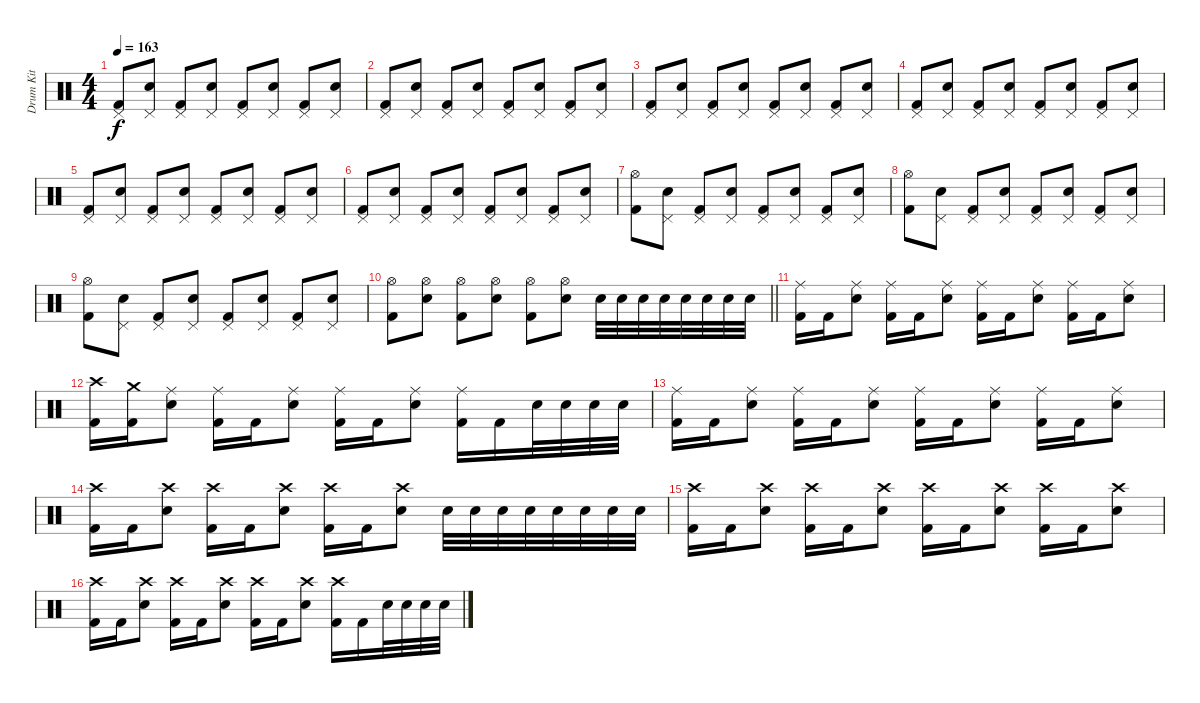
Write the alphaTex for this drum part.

\track ("Drum Kit" "Drum Kit") {instrument percussion}
\staff {score}
\articulation defaults
\ts (4 4)
\tempo 163
\clef neutral
\ks c
("Pedal Hi-Hat (hit)" "Kick (hit) 2").8{dy f} ("Pedal Hi-Hat (hit)" "Electric Snare (hit)").8 ("Pedal Hi-Hat (hit)" "Kick (hit) 2").8 ("Pedal Hi-Hat (hit)" "Electric Snare (hit)").8 ("Pedal Hi-Hat (hit)" "Kick (hit) 2").8 ("Pedal Hi-Hat (hit)" "Electric Snare (hit)").8 ("Pedal Hi-Hat (hit)" "Kick (hit) 2").8 ("Pedal Hi-Hat (hit)" "Electric Snare (hit)").8 |
("Pedal Hi-Hat (hit)" "Kick (hit) 2").8 ("Pedal Hi-Hat (hit)" "Electric Snare (hit)").8 ("Pedal Hi-Hat (hit)" "Kick (hit) 2").8 ("Pedal Hi-Hat (hit)" "Electric Snare (hit)").8 ("Pedal Hi-Hat (hit)" "Kick (hit) 2").8 ("Pedal Hi-Hat (hit)" "Electric Snare (hit)").8 ("Pedal Hi-Hat (hit)" "Kick (hit) 2").8 ("Pedal Hi-Hat (hit)" "Electric Snare (hit)").8 |
("Pedal Hi-Hat (hit)" "Kick (hit) 2").8 ("Pedal Hi-Hat (hit)" "Electric Snare (hit)").8 ("Pedal Hi-Hat (hit)" "Kick (hit) 2").8 ("Pedal Hi-Hat (hit)" "Electric Snare (hit)").8 ("Pedal Hi-Hat (hit)" "Kick (hit) 2").8 ("Pedal Hi-Hat (hit)" "Electric Snare (hit)").8 ("Pedal Hi-Hat (hit)" "Kick (hit) 2").8 ("Pedal Hi-Hat (hit)" "Electric Snare (hit)").8 |
("Pedal Hi-Hat (hit)" "Kick (hit) 2").8 ("Pedal Hi-Hat (hit)" "Electric Snare (hit)").8 ("Pedal Hi-Hat (hit)" "Kick (hit) 2").8 ("Pedal Hi-Hat (hit)" "Electric Snare (hit)").8 ("Pedal Hi-Hat (hit)" "Kick (hit) 2").8 ("Pedal Hi-Hat (hit)" "Electric Snare (hit)").8 ("Pedal Hi-Hat (hit)" "Kick (hit) 2").8 ("Pedal Hi-Hat (hit)" "Electric Snare (hit)").8 |
("Pedal Hi-Hat (hit)" "Kick (hit) 2").8 ("Pedal Hi-Hat (hit)" "Electric Snare (hit)").8 ("Pedal Hi-Hat (hit)" "Kick (hit) 2").8 ("Pedal Hi-Hat (hit)" "Electric Snare (hit)").8 ("Pedal Hi-Hat (hit)" "Kick (hit) 2").8 ("Pedal Hi-Hat (hit)" "Electric Snare (hit)").8 ("Pedal Hi-Hat (hit)" "Kick (hit) 2").8 ("Pedal Hi-Hat (hit)" "Electric Snare (hit)").8 |
("Pedal Hi-Hat (hit)" "Kick (hit) 2").8 ("Pedal Hi-Hat (hit)" "Electric Snare (hit)").8 ("Pedal Hi-Hat (hit)" "Kick (hit) 2").8 ("Pedal Hi-Hat (hit)" "Electric Snare (hit)").8 ("Pedal Hi-Hat (hit)" "Kick (hit) 2").8 ("Pedal Hi-Hat (hit)" "Electric Snare (hit)").8 ("Pedal Hi-Hat (hit)" "Kick (hit) 2").8 ("Pedal Hi-Hat (hit)" "Electric Snare (hit)").8 |
("Hi-Hat (open)" "Kick (hit) 2").8 ("Pedal Hi-Hat (hit)" "Electric Snare (hit)").8 ("Pedal Hi-Hat (hit)" "Kick (hit) 2").8 ("Pedal Hi-Hat (hit)" "Electric Snare (hit)").8 ("Pedal Hi-Hat (hit)" "Kick (hit) 2").8 ("Pedal Hi-Hat (hit)" "Electric Snare (hit)").8 ("Pedal Hi-Hat (hit)" "Kick (hit) 2").8 ("Pedal Hi-Hat (hit)" "Electric Snare (hit)").8 |
("Hi-Hat (open)" "Kick (hit) 2").8 ("Pedal Hi-Hat (hit)" "Electric Snare (hit)").8 ("Pedal Hi-Hat (hit)" "Kick (hit) 2").8 ("Pedal Hi-Hat (hit)" "Electric Snare (hit)").8 ("Pedal Hi-Hat (hit)" "Kick (hit) 2").8 ("Pedal Hi-Hat (hit)" "Electric Snare (hit)").8 ("Pedal Hi-Hat (hit)" "Kick (hit) 2").8 ("Pedal Hi-Hat (hit)" "Electric Snare (hit)").8 |
("Hi-Hat (open)" "Kick (hit) 2").8 ("Pedal Hi-Hat (hit)" "Electric Snare (hit)").8 ("Pedal Hi-Hat (hit)" "Kick (hit) 2").8 ("Pedal Hi-Hat (hit)" "Electric Snare (hit)").8 ("Pedal Hi-Hat (hit)" "Kick (hit) 2").8 ("Pedal Hi-Hat (hit)" "Electric Snare (hit)").8 ("Pedal Hi-Hat (hit)" "Kick (hit) 2").8 ("Pedal Hi-Hat (hit)" "Electric Snare (hit)").8 |
\barLineRight lightlight
("Hi-Hat (open)" "Kick (hit) 2").8 ("Hi-Hat (open)" "Electric Snare (hit)").8 ("Hi-Hat (open)" "Kick (hit) 2").8 ("Hi-Hat (open)" "Electric Snare (hit)").8 ("Hi-Hat (open)" "Kick (hit) 2").8 ("Hi-Hat (open)" "Electric Snare (hit)").8 "Electric Snare (hit)".32 "Electric Snare (hit)".32 "Electric Snare (hit)".32 "Electric Snare (hit)".32 "Electric Snare (hit)".32 "Electric Snare (hit)".32 "Electric Snare (hit)".32 "Electric Snare (hit)".32 |
("Ride (middle)" "Kick (hit) 2").16 "Kick (hit) 2".16 ("Ride (middle)" "Electric Snare (hit)").8 ("Ride (middle)" "Kick (hit) 2").16 "Kick (hit) 2".16 ("Ride (middle)" "Electric Snare (hit)").8 ("Ride (middle)" "Kick (hit) 2").16 "Kick (hit) 2".16 ("Ride (middle)" "Electric Snare (hit)").8 ("Ride (middle)" "Kick (hit) 2").16 "Kick (hit) 2".16 ("Ride (middle)" "Electric Snare (hit)").8 |
("Crash high (hit)" "Kick (hit) 2").16 ("Crash medium (hit)" "Kick (hit) 2").16 ("Ride (middle)" "Electric Snare (hit)").8 ("Ride (middle)" "Kick (hit) 2").16 "Kick (hit) 2".16 ("Ride (middle)" "Electric Snare (hit)").8 ("Ride (middle)" "Kick (hit) 2").16 "Kick (hit) 2".16 ("Ride (middle)" "Electric Snare (hit)").8 ("Ride (middle)" "Kick (hit) 2").16 "Kick (hit) 2".16 "Electric Snare (hit)".32 "Electric Snare (hit)".32 "Electric Snare (hit)".32 "Electric Snare (hit)".32 |
("Ride (middle)" "Kick (hit) 2").16 "Kick (hit) 2".16 ("Ride (middle)" "Electric Snare (hit)").8 ("Ride (middle)" "Kick (hit) 2").16 "Kick (hit) 2".16 ("Ride (middle)" "Electric Snare (hit)").8 ("Ride (middle)" "Kick (hit) 2").16 "Kick (hit) 2".16 ("Ride (middle)" "Electric Snare (hit)").8 ("Ride (middle)" "Kick (hit) 2").16 "Kick (hit) 2".16 ("Ride (middle)" "Electric Snare (hit)").8 |
("Crash high (hit)" "Kick (hit) 2").16 "Kick (hit) 2".16 ("Crash high (hit)" "Electric Snare (hit)").8 ("Crash high (hit)" "Kick (hit) 2").16 "Kick (hit) 2".16 ("Crash high (hit)" "Electric Snare (hit)").8 ("Crash high (hit)" "Kick (hit) 2").16 "Kick (hit) 2".16 ("Crash high (hit)" "Electric Snare (hit)").8 "Electric Snare (hit)".32 "Electric Snare (hit)".32 "Electric Snare (hit)".32 "Electric Snare (hit)".32 "Electric Snare (hit)".32 "Electric Snare (hit)".32 "Electric Snare (hit)".32 "Electric Snare (hit)".32 |
("Crash high (hit)" "Kick (hit) 2").16 "Kick (hit) 2".16 ("Crash high (hit)" "Electric Snare (hit)").8 ("Crash high (hit)" "Kick (hit) 2").16 "Kick (hit) 2".16 ("Crash high (hit)" "Electric Snare (hit)").8 ("Crash high (hit)" "Kick (hit) 2").16 "Kick (hit) 2".16 ("Crash high (hit)" "Electric Snare (hit)").8 ("Crash high (hit)" "Kick (hit) 2").16 "Kick (hit) 2".16 ("Crash high (hit)" "Electric Snare (hit)").8 |
("Crash high (hit)" "Kick (hit) 2").16 "Kick (hit) 2".16 ("Crash high (hit)" "Electric Snare (hit)").8 ("Crash high (hit)" "Kick (hit) 2").16 "Kick (hit) 2".16 ("Crash high (hit)" "Electric Snare (hit)").8 ("Crash high (hit)" "Kick (hit) 2").16 "Kick (hit) 2".16 ("Crash high (hit)" "Electric Snare (hit)").8 ("Crash high (hit)" "Kick (hit) 2").16 "Kick (hit) 2".16 "Electric Snare (hit)".32 "Electric Snare (hit)".32 "Electric Snare (hit)".32 "Electric Snare (hit)".32
